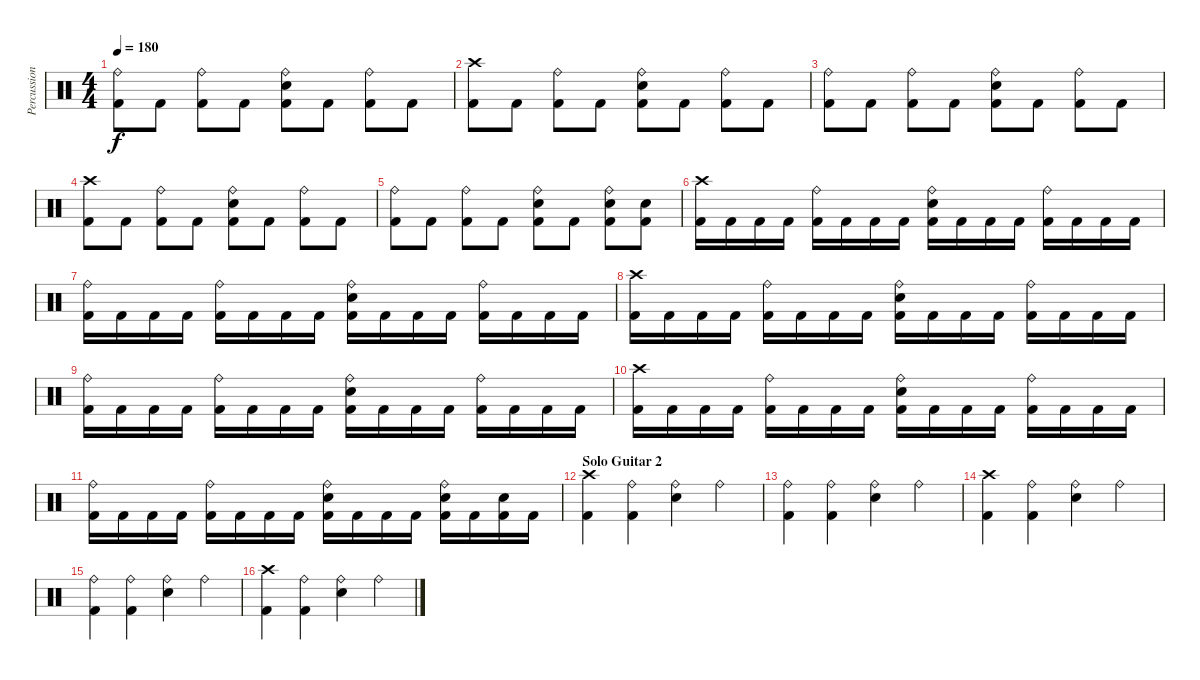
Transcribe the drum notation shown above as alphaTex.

\track ("Percussion" "Percussion") {instrument percussion}
\staff {score}
\articulation defaults
\ts (4 4)
\tempo 180
\clef neutral
\ks c
("Ride (bell)" "Kick (hit) 2").8{dy f} "Kick (hit) 2".8 ("Ride (bell)" "Kick (hit) 2").8 "Kick (hit) 2".8 ("Ride (bell)" "Snare (hit) 2" "Kick (hit) 2").8 "Kick (hit) 2".8 ("Ride (bell)" "Kick (hit) 2").8 "Kick (hit) 2".8 |
("Crash high (hit)" "Kick (hit) 2").8 "Kick (hit) 2".8 ("Ride (bell)" "Kick (hit) 2").8 "Kick (hit) 2".8 ("Ride (bell)" "Snare (hit) 2" "Kick (hit) 2").8 "Kick (hit) 2".8 ("Ride (bell)" "Kick (hit) 2").8 "Kick (hit) 2".8 |
("Ride (bell)" "Kick (hit) 2").8 "Kick (hit) 2".8 ("Ride (bell)" "Kick (hit) 2").8 "Kick (hit) 2".8 ("Ride (bell)" "Snare (hit) 2" "Kick (hit) 2").8 "Kick (hit) 2".8 ("Ride (bell)" "Kick (hit) 2").8 "Kick (hit) 2".8 |
("Crash high (hit)" "Kick (hit) 2").8 "Kick (hit) 2".8 ("Ride (bell)" "Kick (hit) 2").8 "Kick (hit) 2".8 ("Ride (bell)" "Snare (hit) 2" "Kick (hit) 2").8 "Kick (hit) 2".8 ("Ride (bell)" "Kick (hit) 2").8 "Kick (hit) 2".8 |
("Ride (bell)" "Kick (hit) 2").8 "Kick (hit) 2".8 ("Ride (bell)" "Kick (hit) 2").8 "Kick (hit) 2".8 ("Ride (bell)" "Snare (hit) 2" "Kick (hit) 2").8 "Kick (hit) 2".8 ("Ride (bell)" "Snare (hit) 2" "Kick (hit) 2").8 ("Snare (hit) 2" "Kick (hit) 2").8 |
("Crash high (hit)" "Kick (hit) 2").16 "Kick (hit) 2".16 "Kick (hit) 2".16 "Kick (hit) 2".16 ("Ride (bell)" "Kick (hit) 2").16 "Kick (hit) 2".16 "Kick (hit) 2".16 "Kick (hit) 2".16 ("Ride (bell)" "Snare (hit) 2" "Kick (hit) 2").16 "Kick (hit) 2".16 "Kick (hit) 2".16 "Kick (hit) 2".16 ("Ride (bell)" "Kick (hit) 2").16 "Kick (hit) 2".16 "Kick (hit) 2".16 "Kick (hit) 2".16 |
("Ride (bell)" "Kick (hit) 2").16 "Kick (hit) 2".16 "Kick (hit) 2".16 "Kick (hit) 2".16 ("Ride (bell)" "Kick (hit) 2").16 "Kick (hit) 2".16 "Kick (hit) 2".16 "Kick (hit) 2".16 ("Ride (bell)" "Snare (hit) 2" "Kick (hit) 2").16 "Kick (hit) 2".16 "Kick (hit) 2".16 "Kick (hit) 2".16 ("Ride (bell)" "Kick (hit) 2").16 "Kick (hit) 2".16 "Kick (hit) 2".16 "Kick (hit) 2".16 |
("Crash high (hit)" "Kick (hit) 2").16 "Kick (hit) 2".16 "Kick (hit) 2".16 "Kick (hit) 2".16 ("Ride (bell)" "Kick (hit) 2").16 "Kick (hit) 2".16 "Kick (hit) 2".16 "Kick (hit) 2".16 ("Ride (bell)" "Snare (hit) 2" "Kick (hit) 2").16 "Kick (hit) 2".16 "Kick (hit) 2".16 "Kick (hit) 2".16 ("Ride (bell)" "Kick (hit) 2").16 "Kick (hit) 2".16 "Kick (hit) 2".16 "Kick (hit) 2".16 |
("Ride (bell)" "Kick (hit) 2").16 "Kick (hit) 2".16 "Kick (hit) 2".16 "Kick (hit) 2".16 ("Ride (bell)" "Kick (hit) 2").16 "Kick (hit) 2".16 "Kick (hit) 2".16 "Kick (hit) 2".16 ("Ride (bell)" "Snare (hit) 2" "Kick (hit) 2").16 "Kick (hit) 2".16 "Kick (hit) 2".16 "Kick (hit) 2".16 ("Ride (bell)" "Kick (hit) 2").16 "Kick (hit) 2".16 "Kick (hit) 2".16 "Kick (hit) 2".16 |
("Crash high (hit)" "Kick (hit) 2").16 "Kick (hit) 2".16 "Kick (hit) 2".16 "Kick (hit) 2".16 ("Ride (bell)" "Kick (hit) 2").16 "Kick (hit) 2".16 "Kick (hit) 2".16 "Kick (hit) 2".16 ("Ride (bell)" "Snare (hit) 2" "Kick (hit) 2").16 "Kick (hit) 2".16 "Kick (hit) 2".16 "Kick (hit) 2".16 ("Ride (bell)" "Kick (hit) 2").16 "Kick (hit) 2".16 "Kick (hit) 2".16 "Kick (hit) 2".16 |
("Ride (bell)" "Kick (hit) 2").16 "Kick (hit) 2".16 "Kick (hit) 2".16 "Kick (hit) 2".16 ("Ride (bell)" "Kick (hit) 2").16 "Kick (hit) 2".16 "Kick (hit) 2".16 "Kick (hit) 2".16 ("Ride (bell)" "Snare (hit) 2" "Kick (hit) 2").16 "Kick (hit) 2".16 "Kick (hit) 2".16 "Kick (hit) 2".16 ("Ride (bell)" "Snare (hit) 2" "Kick (hit) 2").16 "Kick (hit) 2".16 ("Snare (hit) 2" "Kick (hit) 2").16 "Kick (hit) 2".16 |
\section ("" "Solo Guitar 2")
("Crash high (hit)" "Kick (hit) 2").4 ("Ride (bell)" "Kick (hit) 2").4 ("Ride (bell)" "Snare (hit) 2").4 "Ride (bell)".4 |
("Ride (bell)" "Kick (hit) 2").4 ("Ride (bell)" "Kick (hit) 2").4 ("Ride (bell)" "Snare (hit) 2").4 "Ride (bell)".4 |
("Crash high (hit)" "Kick (hit) 2").4 ("Ride (bell)" "Kick (hit) 2").4 ("Ride (bell)" "Snare (hit) 2").4 "Ride (bell)".4 |
("Ride (bell)" "Kick (hit) 2").4 ("Ride (bell)" "Kick (hit) 2").4 ("Ride (bell)" "Snare (hit) 2").4 "Ride (bell)".4 |
("Crash high (hit)" "Kick (hit) 2").4 ("Ride (bell)" "Kick (hit) 2").4 ("Ride (bell)" "Snare (hit) 2").4 "Ride (bell)".4
